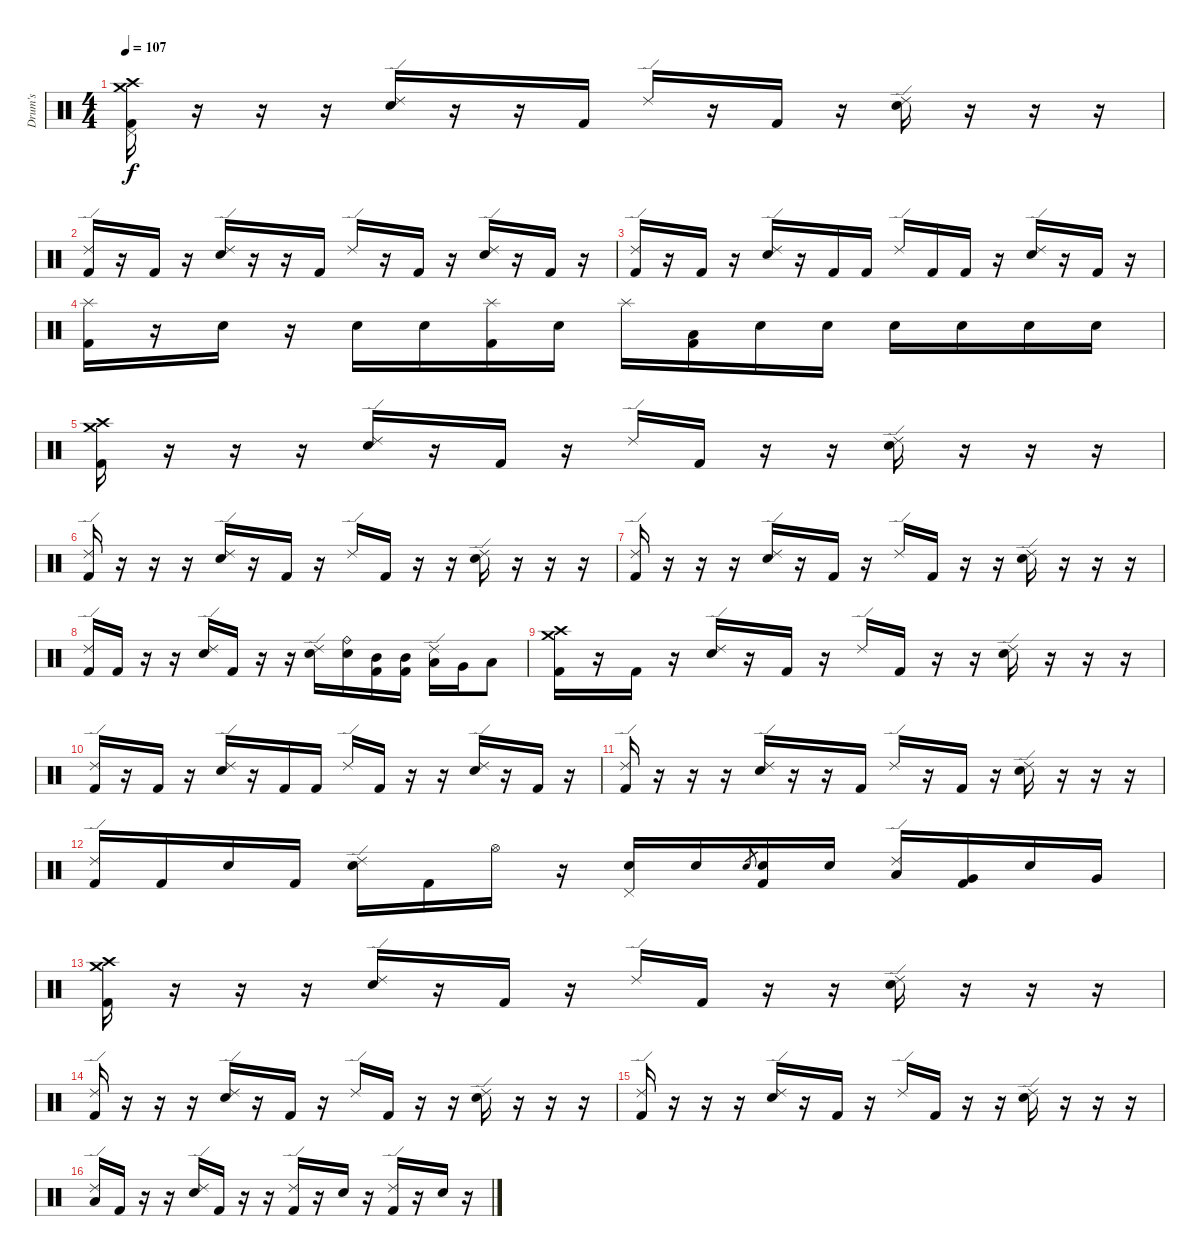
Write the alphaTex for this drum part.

\track ("Drum's" "Drum's") {instrument percussion}
\staff {score}
\articulation defaults
\ts (4 4)
\tempo 107
\clef neutral
\ks c
("Crash medium (hit)" "Crash high (hit)" "Pedal Hi-Hat (hit)" "Kick (hit) 2").16{dy f} r.16 r.16 r.16 ("Ride (edge) 2" "Snare (hit) 2").16 r.16 r.16 "Kick (hit) 2".16 "Ride (edge) 2".16 r.16 "Kick (hit) 2".16 r.16 ("Ride (edge) 2" "Snare (hit) 2").16 r.16 r.16 r.16 |
("Ride (edge) 2" "Kick (hit) 2").16 r.16 "Kick (hit) 2".16 r.16 ("Ride (edge) 2" "Snare (hit) 2").16 r.16 r.16 "Kick (hit) 2".16 "Ride (edge) 2".16 r.16 "Kick (hit) 2".16 r.16 ("Ride (edge) 2" "Snare (hit) 2").16 r.16 "Kick (hit) 2".16 r.16 |
("Ride (edge) 2" "Kick (hit) 2").16 r.16 "Kick (hit) 2".16 r.16 ("Ride (edge) 2" "Snare (hit) 2").16 r.16 "Kick (hit) 2".16 "Kick (hit) 2".16 "Ride (edge) 2".16 "Kick (hit) 2".16 "Kick (hit) 2".16 r.16 ("Ride (edge) 2" "Snare (hit) 2").16 r.16 "Kick (hit) 2".16 r.16 |
("Splash (hit)" "Kick (hit) 2").16 r.16 "Snare (hit) 2".16 r.16 "Snare (hit) 2".16 "Snare (hit) 2".16 ("Splash (hit)" "Kick (hit) 2").16 "Snare (hit) 2".16 "Splash (hit)".16 ("Low Floor Tom (hit)" "Kick (hit) 2").16 "Snare (hit) 2".16 "Snare (hit) 2".16 "Snare (hit) 2".16 "Snare (hit) 2".16 "Snare (hit) 2".16 "Snare (hit) 2".16 |
("Crash medium (hit)" "Crash high (hit)" "Kick (hit) 2").16 r.16 r.16 r.16 ("Ride (edge) 2" "Snare (hit) 2").16 r.16 "Kick (hit) 2".16 r.16 "Ride (edge) 2".16 "Kick (hit) 2".16 r.16 r.16 ("Ride (edge) 2" "Snare (hit) 2").16 r.16 r.16 r.16 |
("Ride (edge) 2" "Kick (hit) 2").16 r.16 r.16 r.16 ("Ride (edge) 2" "Snare (hit) 2").16 r.16 "Kick (hit) 2".16 r.16 "Ride (edge) 2".16 "Kick (hit) 2".16 r.16 r.16 ("Ride (edge) 2" "Snare (hit) 2").16 r.16 r.16 r.16 |
("Ride (edge) 2" "Kick (hit) 2").16 r.16 r.16 r.16 ("Ride (edge) 2" "Snare (hit) 2").16 r.16 "Kick (hit) 2".16 r.16 "Ride (edge) 2".16 "Kick (hit) 2".16 r.16 r.16 ("Ride (edge) 2" "Snare (hit) 2").16 r.16 r.16 r.16 |
("Ride (edge) 2" "Kick (hit) 2").16 "Kick (hit) 2".16 r.16 r.16 ("Ride (edge) 2" "Snare (hit) 2").16 "Kick (hit) 2".16 r.16 r.16 ("Ride (edge) 2" "Snare (hit) 2").16 ("Ride (bell)" "Snare (hit) 2").16 ("Mid Tom (hit)" "Kick (hit) 2").16 ("Mid Tom (hit)" "Kick (hit) 2").16 ("Ride (edge) 2" "Low Tom (hit)").16 "Very Low Tom (hit)".16 "Low Tom (hit)".8 |
("Crash medium (hit)" "Crash high (hit)" "Kick (hit) 2").16 r.16 "Kick (hit) 2".16 r.16 ("Ride (edge) 2" "Snare (hit) 2").16 r.16 "Kick (hit) 2".16 r.16 "Ride (edge) 2".16 "Kick (hit) 2".16 r.16 r.16 ("Ride (edge) 2" "Snare (hit) 2").16 r.16 r.16 r.16 |
("Ride (edge) 2" "Kick (hit) 2").16 r.16 "Kick (hit) 2".16 r.16 ("Ride (edge) 2" "Snare (hit) 2").16 r.16 "Kick (hit) 2".16 "Kick (hit) 2".16 "Ride (edge) 2".16 "Kick (hit) 2".16 r.16 r.16 ("Ride (edge) 2" "Snare (hit) 2").16 r.16 "Kick (hit) 2".16 r.16 |
("Ride (edge) 2" "Kick (hit) 2").16 r.16 r.16 r.16 ("Ride (edge) 2" "Snare (hit) 2").16 r.16 r.16 "Kick (hit) 2".16 "Ride (edge) 2".16 r.16 "Kick (hit) 2".16 r.16 ("Ride (edge) 2" "Snare (hit) 2").16 r.16 r.16 r.16 |
("Ride (edge) 2" "Kick (hit) 2").16 "Kick (hit) 2".16 "Snare (hit) 2".16 "Kick (hit) 2".16 ("Ride (edge) 2" "Snare (hit) 2").16 "Kick (hit) 2".16 "Hi-Hat (open)".16 r.16 ("Pedal Hi-Hat (hit)" "Snare (hit) 2").16 "Snare (hit) 2".16 "Snare (hit) 2".8{gr} ("Snare (hit) 2" "Kick (hit) 2").16 "Snare (hit) 2".16 ("Ride (edge) 2" "Low Tom (hit)").16 ("Very Low Tom (hit)" "Kick (hit) 2").16 "Snare (hit) 2".16 "Very Low Tom (hit)".16 |
("Crash medium (hit)" "Crash high (hit)" "Kick (hit) 2").16 r.16 r.16 r.16 ("Ride (edge) 2" "Snare (hit) 2").16 r.16 "Kick (hit) 2".16 r.16 "Ride (edge) 2".16 "Kick (hit) 2".16 r.16 r.16 ("Ride (edge) 2" "Snare (hit) 2").16 r.16 r.16 r.16 |
("Ride (edge) 2" "Kick (hit) 2").16 r.16 r.16 r.16 ("Ride (edge) 2" "Snare (hit) 2").16 r.16 "Kick (hit) 2".16 r.16 "Ride (edge) 2".16 "Kick (hit) 2".16 r.16 r.16 ("Ride (edge) 2" "Snare (hit) 2").16 r.16 r.16 r.16 |
("Ride (edge) 2" "Kick (hit) 2").16 r.16 r.16 r.16 ("Ride (edge) 2" "Snare (hit) 2").16 r.16 "Kick (hit) 2".16 r.16 "Ride (edge) 2".16 "Kick (hit) 2".16 r.16 r.16 ("Ride (edge) 2" "Snare (hit) 2").16 r.16 r.16 r.16 |
("Ride (edge) 2" "Low Floor Tom (hit)").16 "Kick (hit) 2".16 r.16 r.16 ("Ride (edge) 2" "Snare (hit) 2").16 "Kick (hit) 2".16 r.16 r.16 ("Ride (edge) 2" "Kick (hit) 2").16 r.16 "Snare (hit) 2".16 r.16 ("Ride (edge) 2" "Kick (hit) 2").16 r.16 "Snare (hit) 2".16 r.16
